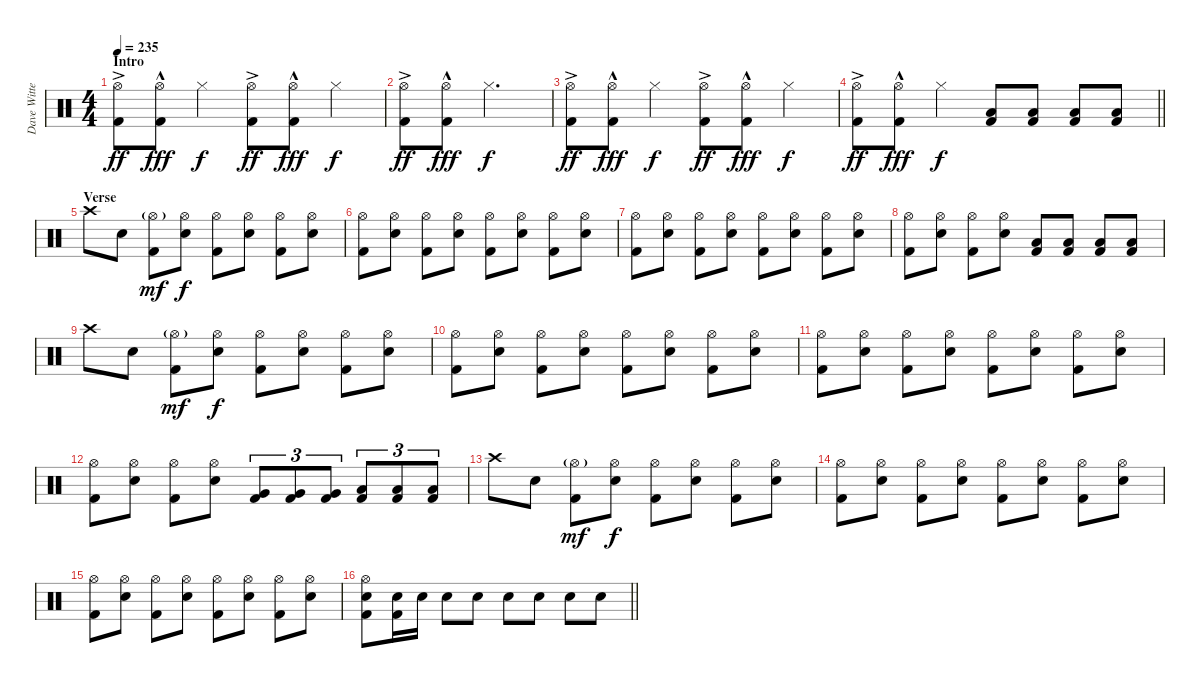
\track ("Dave Witte" "Dave Witte") {instrument percussion}
\staff {score}
\articulation defaults
\ts (4 4)
\section ("" "Intro")
\tempo 235
\clef neutral
\ks c
("Hi-Hat (open)"{ac} "Kick (hit) 2").8{dy ff} ("Hi-Hat (open)"{hac} "Kick (hit) 2").8{dy fff} "Hi-Hat (closed)".4{dy f volume 0} ("Hi-Hat (open)"{ac} "Kick (hit) 2").8{dy ff volume 14} ("Hi-Hat (open)"{hac} "Kick (hit) 2").8{dy fff} "Hi-Hat (closed)".4{dy f volume 0} |
("Hi-Hat (open)"{ac} "Kick (hit) 2").8{dy ff volume 14} ("Hi-Hat (open)"{hac} "Kick (hit) 2").8{dy fff} "Hi-Hat (closed)".2{d dy f volume 0} |
("Hi-Hat (open)"{ac} "Kick (hit) 2").8{dy ff volume 14} ("Hi-Hat (open)"{hac} "Kick (hit) 2").8{dy fff} "Hi-Hat (closed)".4{dy f volume 0} ("Hi-Hat (open)"{ac} "Kick (hit) 2").8{dy ff volume 14} ("Hi-Hat (open)"{hac} "Kick (hit) 2").8{dy fff} "Hi-Hat (closed)".4{dy f volume 0} |
\barLineRight lightlight
("Hi-Hat (open)"{ac} "Kick (hit) 2").8{dy ff volume 14} ("Hi-Hat (open)"{hac} "Kick (hit) 2").8{dy fff} "Hi-Hat (closed)".4{dy f volume 0} ("Low Floor Tom (hit)" "Kick (hit) 2").8{volume 14} ("Low Floor Tom (hit)" "Kick (hit) 2").8 ("Low Floor Tom (hit)" "Kick (hit) 2").8 ("Low Floor Tom (hit)" "Kick (hit) 2").8 |
\section ("" "Verse")
"Crash high (hit)".8 "Electric Snare (hit)".8 ("Hi-Hat (open)"{g} "Kick (hit) 2").8{dy mf} ("Hi-Hat (open)" "Electric Snare (hit)").8{dy f} ("Hi-Hat (open)" "Kick (hit) 2").8 ("Hi-Hat (open)" "Electric Snare (hit)").8 ("Hi-Hat (open)" "Kick (hit) 2").8 ("Hi-Hat (open)" "Electric Snare (hit)").8 |
("Hi-Hat (open)" "Kick (hit) 2").8 ("Hi-Hat (open)" "Electric Snare (hit)").8 ("Hi-Hat (open)" "Kick (hit) 2").8 ("Hi-Hat (open)" "Electric Snare (hit)").8 ("Hi-Hat (open)" "Kick (hit) 2").8 ("Hi-Hat (open)" "Electric Snare (hit)").8 ("Hi-Hat (open)" "Kick (hit) 2").8 ("Hi-Hat (open)" "Electric Snare (hit)").8 |
("Hi-Hat (open)" "Kick (hit) 2").8 ("Hi-Hat (open)" "Electric Snare (hit)").8 ("Hi-Hat (open)" "Kick (hit) 2").8 ("Hi-Hat (open)" "Electric Snare (hit)").8 ("Hi-Hat (open)" "Kick (hit) 2").8 ("Hi-Hat (open)" "Electric Snare (hit)").8 ("Hi-Hat (open)" "Kick (hit) 2").8 ("Hi-Hat (open)" "Electric Snare (hit)").8 |
("Hi-Hat (open)" "Kick (hit) 2").8 ("Hi-Hat (open)" "Electric Snare (hit)").8 ("Hi-Hat (open)" "Kick (hit) 2").8 ("Hi-Hat (open)" "Electric Snare (hit)").8 ("Low Floor Tom (hit)" "Kick (hit) 2").8 ("Low Floor Tom (hit)" "Kick (hit) 2").8 ("Low Floor Tom (hit)" "Kick (hit) 2").8 ("Low Floor Tom (hit)" "Kick (hit) 2").8 |
"Crash high (hit)".8 "Electric Snare (hit)".8 ("Hi-Hat (open)"{g} "Kick (hit) 2").8{dy mf} ("Hi-Hat (open)" "Electric Snare (hit)").8{dy f} ("Hi-Hat (open)" "Kick (hit) 2").8 ("Hi-Hat (open)" "Electric Snare (hit)").8 ("Hi-Hat (open)" "Kick (hit) 2").8 ("Hi-Hat (open)" "Electric Snare (hit)").8 |
("Hi-Hat (open)" "Kick (hit) 2").8 ("Hi-Hat (open)" "Electric Snare (hit)").8 ("Hi-Hat (open)" "Kick (hit) 2").8 ("Hi-Hat (open)" "Electric Snare (hit)").8 ("Hi-Hat (open)" "Kick (hit) 2").8 ("Hi-Hat (open)" "Electric Snare (hit)").8 ("Hi-Hat (open)" "Kick (hit) 2").8 ("Hi-Hat (open)" "Electric Snare (hit)").8 |
("Hi-Hat (open)" "Kick (hit) 2").8 ("Hi-Hat (open)" "Electric Snare (hit)").8 ("Hi-Hat (open)" "Kick (hit) 2").8 ("Hi-Hat (open)" "Electric Snare (hit)").8 ("Hi-Hat (open)" "Kick (hit) 2").8 ("Hi-Hat (open)" "Electric Snare (hit)").8 ("Hi-Hat (open)" "Kick (hit) 2").8 ("Hi-Hat (open)" "Electric Snare (hit)").8 |
("Hi-Hat (open)" "Kick (hit) 2").8 ("Hi-Hat (open)" "Electric Snare (hit)").8 ("Hi-Hat (open)" "Kick (hit) 2").8 ("Hi-Hat (open)" "Electric Snare (hit)").8 ("Very Low Tom (hit)" "Kick (hit) 2").8{tu (3 2)} ("Very Low Tom (hit)" "Kick (hit) 2").8{tu (3 2)} ("Very Low Tom (hit)" "Kick (hit) 2").8{tu (3 2)} ("Low Floor Tom (hit)" "Kick (hit) 2").8{tu (3 2)} ("Low Floor Tom (hit)" "Kick (hit) 2").8{tu (3 2)} ("Low Floor Tom (hit)" "Kick (hit) 2").8{tu (3 2)} |
"Crash high (hit)".8 "Electric Snare (hit)".8 ("Hi-Hat (open)"{g} "Kick (hit) 2").8{dy mf} ("Hi-Hat (open)" "Electric Snare (hit)").8{dy f} ("Hi-Hat (open)" "Kick (hit) 2").8 ("Hi-Hat (open)" "Electric Snare (hit)").8 ("Hi-Hat (open)" "Kick (hit) 2").8 ("Hi-Hat (open)" "Electric Snare (hit)").8 |
("Hi-Hat (open)" "Kick (hit) 2").8 ("Hi-Hat (open)" "Electric Snare (hit)").8 ("Hi-Hat (open)" "Kick (hit) 2").8 ("Hi-Hat (open)" "Electric Snare (hit)").8 ("Hi-Hat (open)" "Kick (hit) 2").8 ("Hi-Hat (open)" "Electric Snare (hit)").8 ("Hi-Hat (open)" "Kick (hit) 2").8 ("Hi-Hat (open)" "Electric Snare (hit)").8 |
("Hi-Hat (open)" "Kick (hit) 2").8 ("Hi-Hat (open)" "Electric Snare (hit)").8 ("Hi-Hat (open)" "Kick (hit) 2").8 ("Hi-Hat (open)" "Electric Snare (hit)").8 ("Hi-Hat (open)" "Kick (hit) 2").8 ("Hi-Hat (open)" "Electric Snare (hit)").8 ("Hi-Hat (open)" "Kick (hit) 2").8 ("Hi-Hat (open)" "Electric Snare (hit)").8 |
\barLineRight lightlight
("Hi-Hat (open)" "Electric Snare (hit)" "Kick (hit) 2").8 ("Electric Snare (hit)" "Kick (hit) 2").16 "Electric Snare (hit)".16 "Electric Snare (hit)".8 "Electric Snare (hit)".8 "Electric Snare (hit)".8 "Electric Snare (hit)".8 "Electric Snare (hit)".8 "Electric Snare (hit)".8
